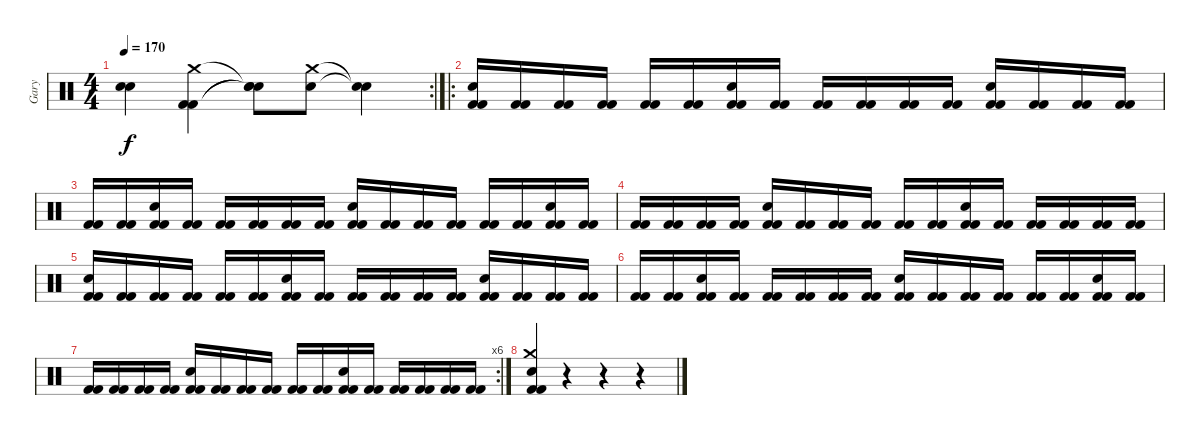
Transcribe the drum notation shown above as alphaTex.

\track ("Gary" "Gary") {instrument percussion}
\staff {score}
\articulation defaults
\rc 2
\ts (4 4)
\tempo 170
\clef neutral
\ks c
("Snare (hit)"{t} "Snare (hit)"{t}).4{dy f} ("Crash medium (hit)" "Kick (hit) 2" "Kick (hit) 2").4 ("Snare (hit)"{t} "Snare (hit)"{t} "Snare (hit)"{t}).8 ("Crash medium (hit)" "Snare (hit) 2").8 ("Snare (hit)"{t} "Snare (hit)"{t}).4 |
\ro
("Snare (hit) 2" "Kick (hit) 2" "Kick (hit) 2").16 ("Kick (hit) 2" "Kick (hit) 2").16 ("Kick (hit) 2" "Kick (hit) 2").16 ("Kick (hit) 2" "Kick (hit) 2").16 ("Kick (hit) 2" "Kick (hit) 2").16 ("Kick (hit) 2" "Kick (hit) 2").16 ("Snare (hit) 2" "Kick (hit) 2" "Kick (hit) 2").16 ("Kick (hit) 2" "Kick (hit) 2").16 ("Kick (hit) 2" "Kick (hit) 2").16 ("Kick (hit) 2" "Kick (hit) 2").16 ("Kick (hit) 2" "Kick (hit) 2").16 ("Kick (hit) 2" "Kick (hit) 2").16 ("Snare (hit) 2" "Kick (hit) 2" "Kick (hit) 2").16 ("Kick (hit) 2" "Kick (hit) 2").16 ("Kick (hit) 2" "Kick (hit) 2").16 ("Kick (hit) 2" "Kick (hit) 2").16 |
("Kick (hit) 2" "Kick (hit) 2").16 ("Kick (hit) 2" "Kick (hit) 2").16 ("Snare (hit) 2" "Kick (hit) 2" "Kick (hit) 2").16 ("Kick (hit) 2" "Kick (hit) 2").16 ("Kick (hit) 2" "Kick (hit) 2").16 ("Kick (hit) 2" "Kick (hit) 2").16 ("Kick (hit) 2" "Kick (hit) 2").16 ("Kick (hit) 2" "Kick (hit) 2").16 ("Snare (hit) 2" "Kick (hit) 2" "Kick (hit) 2").16 ("Kick (hit) 2" "Kick (hit) 2").16 ("Kick (hit) 2" "Kick (hit) 2").16 ("Kick (hit) 2" "Kick (hit) 2").16 ("Kick (hit) 2" "Kick (hit) 2").16 ("Kick (hit) 2" "Kick (hit) 2").16 ("Snare (hit) 2" "Kick (hit) 2" "Kick (hit) 2").16 ("Kick (hit) 2" "Kick (hit) 2").16 |
("Kick (hit) 2" "Kick (hit) 2").16 ("Kick (hit) 2" "Kick (hit) 2").16 ("Kick (hit) 2" "Kick (hit) 2").16 ("Kick (hit) 2" "Kick (hit) 2").16 ("Snare (hit) 2" "Kick (hit) 2" "Kick (hit) 2").16 ("Kick (hit) 2" "Kick (hit) 2").16 ("Kick (hit) 2" "Kick (hit) 2").16 ("Kick (hit) 2" "Kick (hit) 2").16 ("Kick (hit) 2" "Kick (hit) 2").16 ("Kick (hit) 2" "Kick (hit) 2").16 ("Snare (hit) 2" "Kick (hit) 2" "Kick (hit) 2").16 ("Kick (hit) 2" "Kick (hit) 2").16 ("Kick (hit) 2" "Kick (hit) 2").16 ("Kick (hit) 2" "Kick (hit) 2").16 ("Kick (hit) 2" "Kick (hit) 2").16 ("Kick (hit) 2" "Kick (hit) 2").16 |
("Snare (hit) 2" "Kick (hit) 2" "Kick (hit) 2").16 ("Kick (hit) 2" "Kick (hit) 2").16 ("Kick (hit) 2" "Kick (hit) 2").16 ("Kick (hit) 2" "Kick (hit) 2").16 ("Kick (hit) 2" "Kick (hit) 2").16 ("Kick (hit) 2" "Kick (hit) 2").16 ("Snare (hit) 2" "Kick (hit) 2" "Kick (hit) 2").16 ("Kick (hit) 2" "Kick (hit) 2").16 ("Kick (hit) 2" "Kick (hit) 2").16 ("Kick (hit) 2" "Kick (hit) 2").16 ("Kick (hit) 2" "Kick (hit) 2").16 ("Kick (hit) 2" "Kick (hit) 2").16 ("Snare (hit) 2" "Kick (hit) 2" "Kick (hit) 2").16 ("Kick (hit) 2" "Kick (hit) 2").16 ("Kick (hit) 2" "Kick (hit) 2").16 ("Kick (hit) 2" "Kick (hit) 2").16 |
("Kick (hit) 2" "Kick (hit) 2").16 ("Kick (hit) 2" "Kick (hit) 2").16 ("Snare (hit) 2" "Kick (hit) 2" "Kick (hit) 2").16 ("Kick (hit) 2" "Kick (hit) 2").16 ("Kick (hit) 2" "Kick (hit) 2").16 ("Kick (hit) 2" "Kick (hit) 2").16 ("Kick (hit) 2" "Kick (hit) 2").16 ("Kick (hit) 2" "Kick (hit) 2").16 ("Snare (hit) 2" "Kick (hit) 2" "Kick (hit) 2").16 ("Kick (hit) 2" "Kick (hit) 2").16 ("Kick (hit) 2" "Kick (hit) 2").16 ("Kick (hit) 2" "Kick (hit) 2").16 ("Kick (hit) 2" "Kick (hit) 2").16 ("Kick (hit) 2" "Kick (hit) 2").16 ("Snare (hit) 2" "Kick (hit) 2" "Kick (hit) 2").16 ("Kick (hit) 2" "Kick (hit) 2").16 |
\rc 6
("Kick (hit) 2" "Kick (hit) 2").16 ("Kick (hit) 2" "Kick (hit) 2").16 ("Kick (hit) 2" "Kick (hit) 2").16 ("Kick (hit) 2" "Kick (hit) 2").16 ("Snare (hit) 2" "Kick (hit) 2" "Kick (hit) 2").16 ("Kick (hit) 2" "Kick (hit) 2").16 ("Kick (hit) 2" "Kick (hit) 2").16 ("Kick (hit) 2" "Kick (hit) 2").16 ("Kick (hit) 2" "Kick (hit) 2").16 ("Kick (hit) 2" "Kick (hit) 2").16 ("Snare (hit) 2" "Kick (hit) 2" "Kick (hit) 2").16 ("Kick (hit) 2" "Kick (hit) 2").16 ("Kick (hit) 2" "Kick (hit) 2").16 ("Kick (hit) 2" "Kick (hit) 2").16 ("Kick (hit) 2" "Kick (hit) 2").16 ("Kick (hit) 2" "Kick (hit) 2").16 |
("Crash medium (hit)" "Snare (hit) 2" "Kick (hit) 2" "Kick (hit) 2").4 r.4 r.4 r.4
